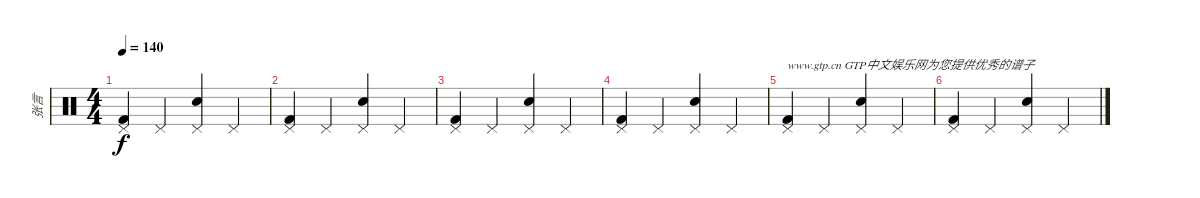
\track ("张言" "张言") {instrument percussion}
\staff {score}
\articulation defaults
\ts (4 4)
\tempo 140
\clef neutral
\ks c
("Kick (hit) 2" "Pedal Hi-Hat (hit)").4{dy f} "Pedal Hi-Hat (hit)".4 ("Snare (hit) 2" "Pedal Hi-Hat (hit)").4 "Pedal Hi-Hat (hit)".4 |
("Kick (hit) 2" "Pedal Hi-Hat (hit)").4 "Pedal Hi-Hat (hit)".4 ("Snare (hit) 2" "Pedal Hi-Hat (hit)").4 "Pedal Hi-Hat (hit)".4 |
("Kick (hit) 2" "Pedal Hi-Hat (hit)").4 "Pedal Hi-Hat (hit)".4 ("Snare (hit) 2" "Pedal Hi-Hat (hit)").4 "Pedal Hi-Hat (hit)".4 |
("Kick (hit) 2" "Pedal Hi-Hat (hit)").4 "Pedal Hi-Hat (hit)".4 ("Snare (hit) 2" "Pedal Hi-Hat (hit)").4 "Pedal Hi-Hat (hit)".4 |
("Kick (hit) 2" "Pedal Hi-Hat (hit)").4{txt "www.gtp.cn GTP中文娱乐网为您提供优秀的谱子"} "Pedal Hi-Hat (hit)".4 ("Snare (hit) 2" "Pedal Hi-Hat (hit)").4 "Pedal Hi-Hat (hit)".4 |
("Kick (hit) 2" "Pedal Hi-Hat (hit)").4 "Pedal Hi-Hat (hit)".4 ("Snare (hit) 2" "Pedal Hi-Hat (hit)").4 "Pedal Hi-Hat (hit)".4
